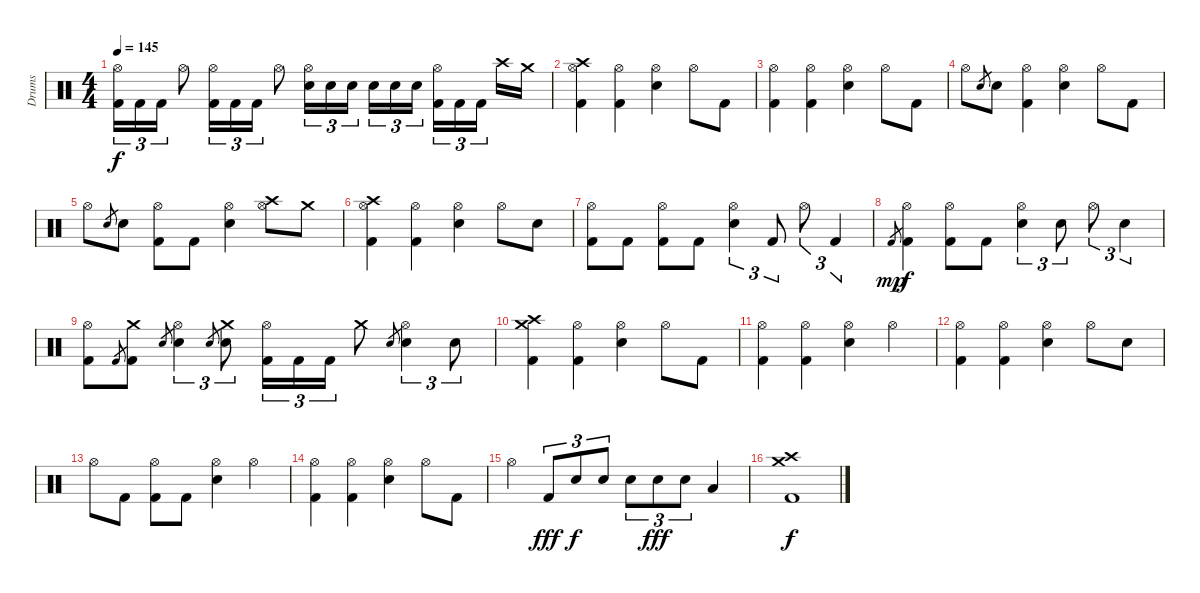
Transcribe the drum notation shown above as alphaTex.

\track ("Drums" "Drums") {instrument percussion}
\staff {score}
\articulation defaults
\ts (4 4)
\tempo 145
\clef neutral
\ks c
("Hi-Hat (open)" "Kick (hit) 2").16{tu (3 2) dy f} "Kick (hit) 2".16{tu (3 2)} "Kick (hit) 2".16{tu (3 2)} "Hi-Hat (open)".8 ("Hi-Hat (open)" "Kick (hit) 2").16{tu (3 2)} "Kick (hit) 2".16{tu (3 2)} "Kick (hit) 2".16{tu (3 2)} "Hi-Hat (open)".8 ("Hi-Hat (open)" "Electric Snare (hit)").16{tu (3 2)} "Electric Snare (hit)".16{tu (3 2)} "Electric Snare (hit)".16{tu (3 2)} "Electric Snare (hit)".16{tu (3 2)} "Electric Snare (hit)".16{tu (3 2)} "Electric Snare (hit)".16{tu (3 2)} ("Hi-Hat (open)" "Kick (hit) 2").16{tu (3 2)} "Kick (hit) 2".16{tu (3 2)} "Kick (hit) 2".16{tu (3 2)} "Crash high (hit)".16 "Crash medium (hit)".16 |
("Crash high (hit)" "Hi-Hat (open)" "Kick (hit) 2").4 ("Hi-Hat (open)" "Kick (hit) 2").4 ("Hi-Hat (open)" "Electric Snare (hit)").4 "Hi-Hat (open)".8 "Kick (hit) 2".8 |
("Hi-Hat (open)" "Kick (hit) 2").4 ("Hi-Hat (open)" "Kick (hit) 2").4 ("Hi-Hat (open)" "Electric Snare (hit)").4 "Hi-Hat (open)".8 "Kick (hit) 2".8 |
"Hi-Hat (open)".8 "Electric Snare (hit)".8{gr} "Electric Snare (hit)".8 ("Hi-Hat (open)" "Kick (hit) 2").4 ("Hi-Hat (open)" "Electric Snare (hit)").4 "Hi-Hat (open)".8 "Kick (hit) 2".8 |
"Hi-Hat (open)".8 "Electric Snare (hit)".8{gr} "Electric Snare (hit)".8 ("Hi-Hat (open)" "Kick (hit) 2").8 "Kick (hit) 2".8 ("Hi-Hat (open)" "Electric Snare (hit)").4 ("Crash high (hit)" "Hi-Hat (open)").8 "Crash medium (hit)".8 |
("Crash high (hit)" "Hi-Hat (open)" "Kick (hit) 2").4 ("Hi-Hat (open)" "Kick (hit) 2").4 ("Hi-Hat (open)" "Electric Snare (hit)").4 "Hi-Hat (open)".8 "Electric Snare (hit)".8 |
("Hi-Hat (open)" "Kick (hit) 2").8 "Kick (hit) 2".8 ("Hi-Hat (open)" "Kick (hit) 2").8 "Kick (hit) 2".8 ("Hi-Hat (open)" "Electric Snare (hit)").4{tu (3 2)} "Kick (hit) 2".8{tu (3 2)} "Hi-Hat (open)".8{tu (3 2)} "Kick (hit) 2".4{tu (3 2)} |
"Kick (hit) 2".8{gr dy mp} ("Hi-Hat (open)" "Kick (hit) 2").4{dy f} ("Hi-Hat (open)" "Kick (hit) 2").8 "Kick (hit) 2".8 ("Hi-Hat (open)" "Electric Snare (hit)").4{tu (3 2)} "Electric Snare (hit)".8{tu (3 2)} "Hi-Hat (open)".8{tu (3 2)} "Electric Snare (hit)".4{tu (3 2)} |
("Hi-Hat (open)" "Kick (hit) 2").8 "Kick (hit) 2".8{gr} ("Crash medium (hit)" "Kick (hit) 2").8 "Electric Snare (hit)".8{gr} ("Hi-Hat (open)" "Electric Snare (hit)").4{tu (3 2)} "Electric Snare (hit)".8{gr} ("Crash medium (hit)" "Electric Snare (hit)").8{tu (3 2)} ("Hi-Hat (open)" "Kick (hit) 2").16{tu (3 2)} "Kick (hit) 2".16{tu (3 2)} "Kick (hit) 2".16{tu (3 2)} "Crash medium (hit)".8 "Electric Snare (hit)".8{gr} ("Hi-Hat (open)" "Electric Snare (hit)").4{tu (3 2)} "Electric Snare (hit)".8{tu (3 2)} |
("Crash medium (hit)" "Crash high (hit)" "Kick (hit) 2").4 ("Hi-Hat (open)" "Kick (hit) 2").4 ("Hi-Hat (open)" "Electric Snare (hit)").4 "Hi-Hat (open)".8 "Kick (hit) 2".8 |
("Hi-Hat (open)" "Kick (hit) 2").4 ("Hi-Hat (open)" "Kick (hit) 2").4 ("Hi-Hat (open)" "Electric Snare (hit)").4 "Hi-Hat (open)".4 |
("Hi-Hat (open)" "Kick (hit) 2").4 ("Hi-Hat (open)" "Kick (hit) 2").4 ("Hi-Hat (open)" "Electric Snare (hit)").4 "Hi-Hat (open)".8 "Electric Snare (hit)".8 |
"Hi-Hat (open)".8 "Kick (hit) 2".8 ("Hi-Hat (open)" "Kick (hit) 2").8 "Kick (hit) 2".8 ("Hi-Hat (open)" "Electric Snare (hit)").4 "Hi-Hat (open)".4 |
("Hi-Hat (open)" "Kick (hit) 2").4 ("Hi-Hat (open)" "Kick (hit) 2").4 ("Hi-Hat (open)" "Electric Snare (hit)").4 "Hi-Hat (open)".8 "Kick (hit) 2".8 |
"Hi-Hat (open)".4 "Kick (hit) 2".8{tu (3 2) dy fff} "Electric Snare (hit)".8{tu (3 2) dy f} "Electric Snare (hit)".8{tu (3 2)} "Electric Snare (hit)".8{tu (3 2)} "Electric Snare (hit)".8{tu (3 2) dy fff} "Electric Snare (hit)".8{tu (3 2)} "Low Floor Tom (hit)".4 |
("Crash medium (hit)" "Crash high (hit)" "Kick (hit) 2").1{dy f}
